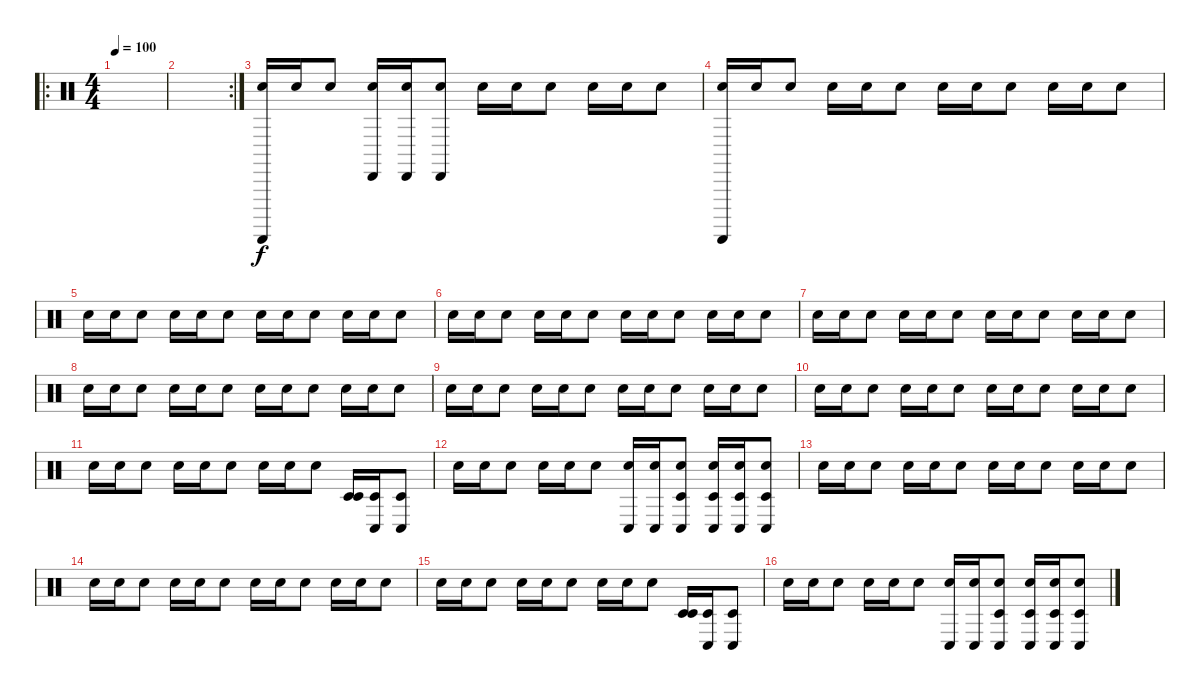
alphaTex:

\track "" {instrument percussion}
\staff {score}
\articulation defaults
\ro
\ts (4 4)
\tempo 100
\clef neutral
\ks c
|
\rc 2
|
("Electric Snare (hit)" "Guiro (scrap-return)").16{volume 6} "Electric Snare (hit)".16 "Snare (hit) 2".8 ("Electric Snare (hit)" "Cabasa (hit)").16 ("Electric Snare (hit)" "Cabasa (hit)").16 ("Snare (hit) 2" "Cabasa (hit)").8 "Electric Snare (hit)".16 "Electric Snare (hit)".16 "Snare (hit) 2".8 "Electric Snare (hit)".16 "Electric Snare (hit)".16 "Snare (hit) 2".8 |
("Electric Snare (hit)" "Guiro (scrap-return)").16 "Electric Snare (hit)".16 "Snare (hit) 2".8 "Electric Snare (hit)".16 "Electric Snare (hit)".16 "Snare (hit) 2".8 "Electric Snare (hit)".16 "Electric Snare (hit)".16 "Snare (hit) 2".8 "Electric Snare (hit)".16 "Electric Snare (hit)".16 "Snare (hit) 2".8 |
"Electric Snare (hit)".16 "Electric Snare (hit)".16 "Snare (hit) 2".8 "Electric Snare (hit)".16 "Electric Snare (hit)".16 "Snare (hit) 2".8 "Electric Snare (hit)".16 "Electric Snare (hit)".16 "Snare (hit) 2".8 "Electric Snare (hit)".16 "Electric Snare (hit)".16 "Snare (hit) 2".8 |
"Electric Snare (hit)".16 "Electric Snare (hit)".16 "Snare (hit) 2".8 "Electric Snare (hit)".16 "Electric Snare (hit)".16 "Snare (hit) 2".8 "Electric Snare (hit)".16 "Electric Snare (hit)".16 "Snare (hit) 2".8 "Electric Snare (hit)".16 "Electric Snare (hit)".16 "Snare (hit) 2".8 |
"Electric Snare (hit)".16 "Electric Snare (hit)".16 "Snare (hit) 2".8 "Electric Snare (hit)".16 "Electric Snare (hit)".16 "Snare (hit) 2".8 "Electric Snare (hit)".16 "Electric Snare (hit)".16 "Snare (hit) 2".8 "Electric Snare (hit)".16 "Electric Snare (hit)".16 "Snare (hit) 2".8 |
"Electric Snare (hit)".16 "Electric Snare (hit)".16 "Snare (hit) 2".8 "Electric Snare (hit)".16 "Electric Snare (hit)".16 "Snare (hit) 2".8 "Electric Snare (hit)".16 "Electric Snare (hit)".16 "Snare (hit) 2".8 "Electric Snare (hit)".16 "Electric Snare (hit)".16 "Snare (hit) 2".8 |
"Electric Snare (hit)".16 "Electric Snare (hit)".16 "Snare (hit) 2".8 "Electric Snare (hit)".16 "Electric Snare (hit)".16 "Snare (hit) 2".8 "Electric Snare (hit)".16 "Electric Snare (hit)".16 "Snare (hit) 2".8 "Electric Snare (hit)".16 "Electric Snare (hit)".16 "Snare (hit) 2".8 |
"Electric Snare (hit)".16 "Electric Snare (hit)".16 "Snare (hit) 2".8 "Electric Snare (hit)".16 "Electric Snare (hit)".16 "Snare (hit) 2".8 "Electric Snare (hit)".16 "Electric Snare (hit)".16 "Snare (hit) 2".8 "Electric Snare (hit)".16 "Electric Snare (hit)".16 "Snare (hit) 2".8 |
"Electric Snare (hit)".16 "Electric Snare (hit)".16 "Snare (hit) 2".8 "Electric Snare (hit)".16 "Electric Snare (hit)".16 "Snare (hit) 2".8 "Electric Snare (hit)".16 "Electric Snare (hit)".16 "Snare (hit) 2".8 ("Timbale low (hit)" "Timbale low (hit)").16{volume 12} ("Conga low (hit)" "Timbale low (hit)").16 ("Conga low (hit)" "Timbale low (hit)").8 |
"Electric Snare (hit)".16{volume 6} "Electric Snare (hit)".16 "Snare (hit) 2".8 "Electric Snare (hit)".16 "Electric Snare (hit)".16 "Snare (hit) 2".8 ("Electric Snare (hit)" "Conga low (hit)").16 ("Electric Snare (hit)" "Conga low (hit)").16 ("Snare (hit) 2" "Conga low (hit)" "Timbale low (hit)").8 ("Electric Snare (hit)" "Conga low (hit)" "Timbale low (hit)").16 ("Electric Snare (hit)" "Conga low (hit)" "Timbale low (hit)").16 ("Snare (hit)" "Conga low (hit)" "Timbale low (hit)").8 |
"Electric Snare (hit)".16 "Electric Snare (hit)".16 "Snare (hit) 2".8 "Electric Snare (hit)".16 "Electric Snare (hit)".16 "Snare (hit) 2".8 "Electric Snare (hit)".16 "Electric Snare (hit)".16 "Snare (hit) 2".8 "Electric Snare (hit)".16 "Electric Snare (hit)".16 "Snare (hit) 2".8 |
"Electric Snare (hit)".16 "Electric Snare (hit)".16 "Snare (hit) 2".8 "Electric Snare (hit)".16 "Electric Snare (hit)".16 "Snare (hit) 2".8 "Electric Snare (hit)".16 "Electric Snare (hit)".16 "Snare (hit) 2".8 "Electric Snare (hit)".16 "Electric Snare (hit)".16 "Snare (hit) 2".8 |
"Electric Snare (hit)".16 "Electric Snare (hit)".16 "Snare (hit) 2".8 "Electric Snare (hit)".16 "Electric Snare (hit)".16 "Snare (hit) 2".8 "Electric Snare (hit)".16 "Electric Snare (hit)".16 "Snare (hit) 2".8 ("Timbale low (hit)" "Timbale low (hit)").16{volume 12} ("Conga low (hit)" "Timbale low (hit)").16 ("Conga low (hit)" "Timbale low (hit)").8 |
"Electric Snare (hit)".16{volume 6} "Electric Snare (hit)".16 "Snare (hit) 2".8 "Electric Snare (hit)".16 "Electric Snare (hit)".16 "Snare (hit) 2".8 ("Electric Snare (hit)" "Conga low (hit)").16 ("Electric Snare (hit)" "Conga low (hit)").16 ("Snare (hit) 2" "Conga low (hit)" "Timbale low (hit)").8 ("Electric Snare (hit)" "Conga low (hit)" "Timbale low (hit)").16 ("Electric Snare (hit)" "Conga low (hit)" "Timbale low (hit)").16 ("Snare (hit)" "Conga low (hit)" "Timbale low (hit)").8
